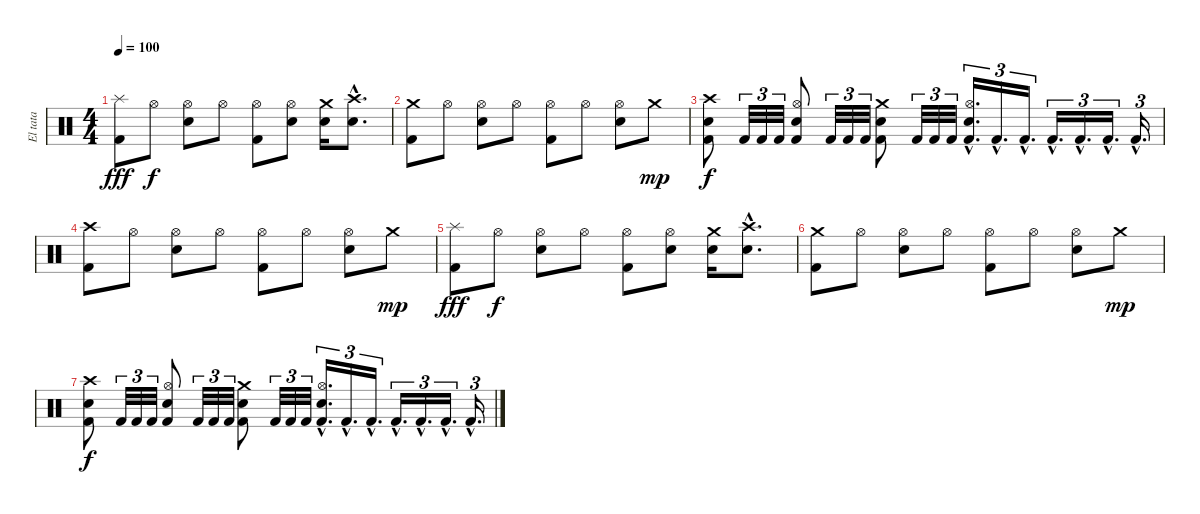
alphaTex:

\track ("El tata" "El tata") {instrument percussion}
\staff {score}
\articulation defaults
\ts (4 4)
\tempo 100
\clef neutral
\ks c
("Kick (hit) 2" "Splash (hit)").8{dy fff} "Hi-Hat (open)".8{dy f} ("Electric Snare (hit)" "Hi-Hat (open)").8 "Hi-Hat (open)".8 ("Kick (hit) 2" "Hi-Hat (open)").8 ("Electric Snare (hit)" "Hi-Hat (open)").8 ("Electric Snare (hit)" "Crash medium (hit)").16 ("Electric Snare (hit)"{hac} "Crash high (hit)"{hac}).8{d} |
("Kick (hit) 2" "Crash medium (hit)").8 "Hi-Hat (open)".8 ("Electric Snare (hit)" "Hi-Hat (open)").8 "Hi-Hat (open)".8 ("Kick (hit) 2" "Hi-Hat (open)").8 "Hi-Hat (open)".8 ("Electric Snare (hit)" "Hi-Hat (open)").8 "Crash medium (hit)".8{dy mp} |
("Kick (hit) 2" "Electric Snare (hit)" "Crash high (hit)").8{dy f} "Kick (hit) 2".32{tu (3 2)} "Kick (hit) 2".32{tu (3 2)} "Kick (hit) 2".32{tu (3 2)} ("Kick (hit) 2" "Electric Snare (hit)" "Hi-Hat (open)").8 "Kick (hit) 2".32{tu (3 2)} "Kick (hit) 2".32{tu (3 2)} "Kick (hit) 2".32{tu (3 2)} ("Kick (hit) 2" "Electric Snare (hit)" "Crash medium (hit)").8 "Kick (hit) 2".32{tu (3 2)} "Kick (hit) 2".32{tu (3 2)} "Kick (hit) 2".32{tu (3 2)} ("Kick (hit) 2"{hac} "Electric Snare (hit)"{hac} "Hi-Hat (open)"{hac}).16{d tu (3 2)} "Kick (hit) 2"{hac}.16{d tu (3 2)} "Kick (hit) 2"{hac}.16{d tu (3 2)} "Kick (hit) 2"{hac}.16{d tu (3 2)} "Kick (hit) 2"{hac}.16{d tu (3 2)} "Kick (hit) 2"{hac}.16{d tu (3 2)} "Kick (hit) 2"{hac}.16{d tu (3 2)} |
("Kick (hit) 2" "Crash high (hit)").8 "Hi-Hat (open)".8 ("Electric Snare (hit)" "Hi-Hat (open)").8 "Hi-Hat (open)".8 ("Kick (hit) 2" "Hi-Hat (open)").8 "Hi-Hat (open)".8 ("Electric Snare (hit)" "Hi-Hat (open)").8 "Crash medium (hit)".8{dy mp} |
("Kick (hit) 2" "Splash (hit)").8{dy fff} "Hi-Hat (open)".8{dy f} ("Electric Snare (hit)" "Hi-Hat (open)").8 "Hi-Hat (open)".8 ("Kick (hit) 2" "Hi-Hat (open)").8 ("Electric Snare (hit)" "Hi-Hat (open)").8 ("Electric Snare (hit)" "Crash medium (hit)").16 ("Electric Snare (hit)"{hac} "Crash high (hit)"{hac}).8{d} |
("Kick (hit) 2" "Crash medium (hit)").8 "Hi-Hat (open)".8 ("Electric Snare (hit)" "Hi-Hat (open)").8 "Hi-Hat (open)".8 ("Kick (hit) 2" "Hi-Hat (open)").8 "Hi-Hat (open)".8 ("Electric Snare (hit)" "Hi-Hat (open)").8 "Crash medium (hit)".8{dy mp} |
("Kick (hit) 2" "Electric Snare (hit)" "Crash high (hit)").8{dy f} "Kick (hit) 2".32{tu (3 2)} "Kick (hit) 2".32{tu (3 2)} "Kick (hit) 2".32{tu (3 2)} ("Kick (hit) 2" "Electric Snare (hit)" "Hi-Hat (open)").8 "Kick (hit) 2".32{tu (3 2)} "Kick (hit) 2".32{tu (3 2)} "Kick (hit) 2".32{tu (3 2)} ("Kick (hit) 2" "Electric Snare (hit)" "Crash medium (hit)").8 "Kick (hit) 2".32{tu (3 2)} "Kick (hit) 2".32{tu (3 2)} "Kick (hit) 2".32{tu (3 2)} ("Kick (hit) 2"{hac} "Electric Snare (hit)"{hac} "Hi-Hat (open)"{hac}).16{d tu (3 2)} "Kick (hit) 2"{hac}.16{d tu (3 2)} "Kick (hit) 2"{hac}.16{d tu (3 2)} "Kick (hit) 2"{hac}.16{d tu (3 2)} "Kick (hit) 2"{hac}.16{d tu (3 2)} "Kick (hit) 2"{hac}.16{d tu (3 2)} "Kick (hit) 2"{hac}.16{d tu (3 2)}
